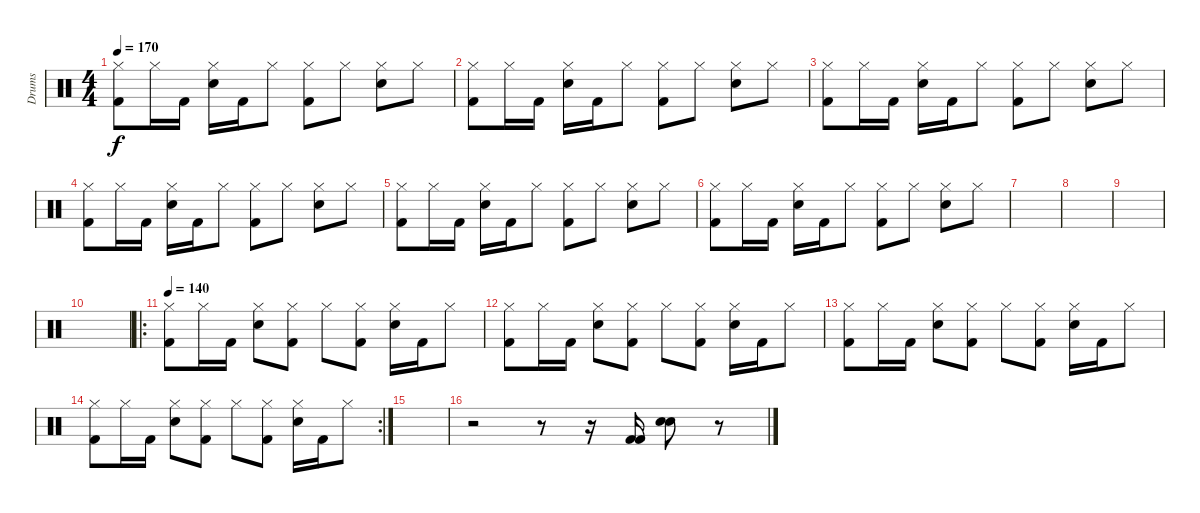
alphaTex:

\track ("Drums" "Drums") {instrument percussion}
\staff {score}
\articulation defaults
\ts (4 4)
\tempo 170
\clef neutral
\ks c
("Kick (hit) 2" "Hi-Hat (closed)").8{dy f} "Hi-Hat (closed)".16 "Kick (hit) 2".16 ("Snare (hit) 2" "Hi-Hat (closed)").16 "Kick (hit) 2".16 "Hi-Hat (closed)".8 ("Kick (hit) 2" "Hi-Hat (closed)").8 "Hi-Hat (closed)".8 ("Snare (hit) 2" "Hi-Hat (closed)").8 "Hi-Hat (closed)".8 |
("Kick (hit) 2" "Hi-Hat (closed)").8 "Hi-Hat (closed)".16 "Kick (hit) 2".16 ("Snare (hit) 2" "Hi-Hat (closed)").16 "Kick (hit) 2".16 "Hi-Hat (closed)".8 ("Kick (hit) 2" "Hi-Hat (closed)").8 "Hi-Hat (closed)".8 ("Snare (hit) 2" "Hi-Hat (closed)").8 "Hi-Hat (closed)".8 |
("Kick (hit) 2" "Hi-Hat (closed)").8 "Hi-Hat (closed)".16 "Kick (hit) 2".16 ("Snare (hit) 2" "Hi-Hat (closed)").16 "Kick (hit) 2".16 "Hi-Hat (closed)".8 ("Kick (hit) 2" "Hi-Hat (closed)").8 "Hi-Hat (closed)".8 ("Snare (hit) 2" "Hi-Hat (closed)").8 "Hi-Hat (closed)".8 |
("Kick (hit) 2" "Hi-Hat (closed)").8 "Hi-Hat (closed)".16 "Kick (hit) 2".16 ("Snare (hit) 2" "Hi-Hat (closed)").16 "Kick (hit) 2".16 "Hi-Hat (closed)".8 ("Kick (hit) 2" "Hi-Hat (closed)").8 "Hi-Hat (closed)".8 ("Snare (hit) 2" "Hi-Hat (closed)").8 "Hi-Hat (closed)".8 |
("Kick (hit) 2" "Hi-Hat (closed)").8 "Hi-Hat (closed)".16 "Kick (hit) 2".16 ("Snare (hit) 2" "Hi-Hat (closed)").16 "Kick (hit) 2".16 "Hi-Hat (closed)".8 ("Kick (hit) 2" "Hi-Hat (closed)").8 "Hi-Hat (closed)".8 ("Snare (hit) 2" "Hi-Hat (closed)").8 "Hi-Hat (closed)".8 |
("Kick (hit) 2" "Hi-Hat (closed)").8 "Hi-Hat (closed)".16 "Kick (hit) 2".16 ("Snare (hit) 2" "Hi-Hat (closed)").16 "Kick (hit) 2".16 "Hi-Hat (closed)".8 ("Kick (hit) 2" "Hi-Hat (closed)").8 "Hi-Hat (closed)".8 ("Snare (hit) 2" "Hi-Hat (closed)").8 "Hi-Hat (closed)".8 |
|
|
|
|
\ro
\tempo 140
("Kick (hit) 2" "Hi-Hat (closed)").8 "Hi-Hat (closed)".16 "Kick (hit) 2".16 ("Snare (hit) 2" "Hi-Hat (closed)").8 ("Kick (hit) 2" "Hi-Hat (closed)").8 "Hi-Hat (closed)".8 ("Kick (hit) 2" "Hi-Hat (closed)").8 ("Snare (hit) 2" "Hi-Hat (closed)").16 "Kick (hit) 2".16 "Hi-Hat (closed)".8 |
("Kick (hit) 2" "Hi-Hat (closed)").8 "Hi-Hat (closed)".16 "Kick (hit) 2".16 ("Snare (hit) 2" "Hi-Hat (closed)").8 ("Kick (hit) 2" "Hi-Hat (closed)").8 "Hi-Hat (closed)".8 ("Kick (hit) 2" "Hi-Hat (closed)").8 ("Snare (hit) 2" "Hi-Hat (closed)").16 "Kick (hit) 2".16 "Hi-Hat (closed)".8 |
("Kick (hit) 2" "Hi-Hat (closed)").8 "Hi-Hat (closed)".16 "Kick (hit) 2".16 ("Snare (hit) 2" "Hi-Hat (closed)").8 ("Kick (hit) 2" "Hi-Hat (closed)").8 "Hi-Hat (closed)".8 ("Kick (hit) 2" "Hi-Hat (closed)").8 ("Snare (hit) 2" "Hi-Hat (closed)").16 "Kick (hit) 2".16 "Hi-Hat (closed)".8 |
\rc 2
("Kick (hit) 2" "Hi-Hat (closed)").8 "Hi-Hat (closed)".16 "Kick (hit) 2".16 ("Snare (hit) 2" "Hi-Hat (closed)").8 ("Kick (hit) 2" "Hi-Hat (closed)").8 "Hi-Hat (closed)".8 ("Kick (hit) 2" "Hi-Hat (closed)").8 ("Snare (hit) 2" "Hi-Hat (closed)").16 "Kick (hit) 2".16 "Hi-Hat (closed)".8 |
|
r.2 r.8 r.16 ("Kick (hit) 2" "Kick (hit) 2").16 ("Snare (hit) 2" "Snare (hit) 2").8 r.8
